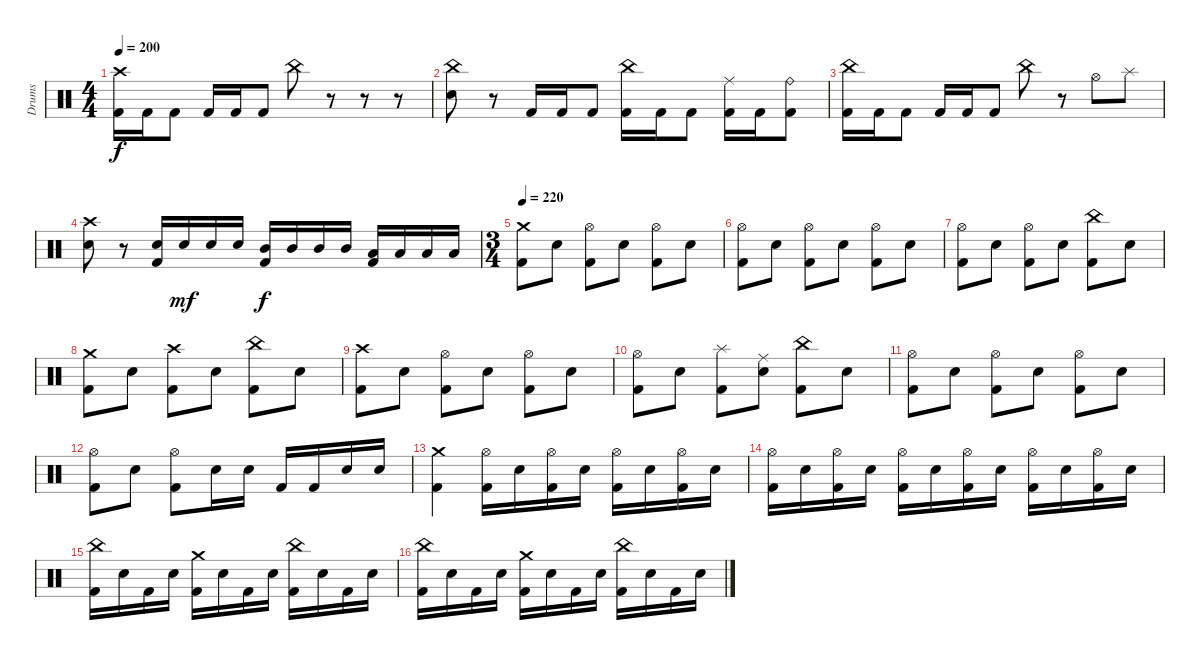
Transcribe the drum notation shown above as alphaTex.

\track ("Drums" "Drums") {instrument percussion}
\staff
\articulation defaults
\ts (4 4)
\tempo 200
\clef neutral
\ks c
("Crash high (hit)" "Kick (hit) 2").16{dy f} "Kick (hit) 2".16 "Kick (hit) 2".8 "Kick (hit) 2".16 "Kick (hit) 2".16 "Kick (hit) 2".8 "China (hit)".8 r.8 r.8 r.8 |
("China (hit)" "Electric Snare (hit)").8 r.8 "Kick (hit) 2".16 "Kick (hit) 2".16 "Kick (hit) 2".8 ("China (hit)" "Kick (hit) 2").16 "Kick (hit) 2".16 "Kick (hit) 2".8 ("Ride (middle)" "Kick (hit) 2").16 "Kick (hit) 2".16 ("Ride (bell)" "Kick (hit) 2").8 |
("China (hit)" "Kick (hit) 2").16 "Kick (hit) 2".16 "Kick (hit) 2".8 "Kick (hit) 2".16 "Kick (hit) 2".16 "Kick (hit) 2".8 "China (hit)".8 r.8 "Hi-Hat (open)".8 "Splash (hit)".8 |
("Crash high (hit)" "Electric Snare (hit)").8 r.8 ("Electric Snare (hit)" "Kick (hit) 2").16 "Electric Snare (hit)".16{dy mf} "Electric Snare (hit)".16 "Electric Snare (hit)".16 ("Mid Tom (hit)" "Kick (hit) 2").16{dy f} "Mid Tom (hit)".16 "Mid Tom (hit)".16 "Mid Tom (hit)".16 ("Low Tom (hit)" "Kick (hit) 2").16 "Low Tom (hit)".16 "Low Tom (hit)".16 "Low Tom (hit)".16 |
\ts (3 4)
\tempo 220
("Crash medium (hit)" "Kick (hit) 2").8 "Electric Snare (hit)".8 ("Hi-Hat (open)" "Kick (hit) 2").8 "Electric Snare (hit)".8 ("Hi-Hat (open)" "Kick (hit) 2").8 "Electric Snare (hit)".8 |
("Hi-Hat (open)" "Kick (hit) 2").8 "Electric Snare (hit)".8 ("Hi-Hat (open)" "Kick (hit) 2").8 "Electric Snare (hit)".8 ("Hi-Hat (open)" "Kick (hit) 2").8 "Electric Snare (hit)".8 |
("Hi-Hat (open)" "Kick (hit) 2").8 "Electric Snare (hit)".8 ("Hi-Hat (open)" "Kick (hit) 2").8 "Electric Snare (hit)".8 ("China (hit)" "Kick (hit) 2").8 "Electric Snare (hit)".8 |
("Crash medium (hit)" "Kick (hit) 2").8 "Electric Snare (hit)".8 ("Crash high (hit)" "Kick (hit) 2").8 "Electric Snare (hit)".8 ("China (hit)" "Kick (hit) 2").8 "Electric Snare (hit)".8 |
("Crash high (hit)" "Kick (hit) 2").8 "Electric Snare (hit)".8 ("Hi-Hat (open)" "Kick (hit) 2").8 "Electric Snare (hit)".8 ("Hi-Hat (open)" "Kick (hit) 2").8 "Electric Snare (hit)".8 |
("Hi-Hat (open)" "Kick (hit) 2").8 "Electric Snare (hit)".8 ("Splash (hit)" "Kick (hit) 2").8 ("Ride (middle)" "Electric Snare (hit)").8 ("China (hit)" "Kick (hit) 2").8 "Electric Snare (hit)".8 |
("Hi-Hat (open)" "Kick (hit) 2").8 "Electric Snare (hit)".8 ("Hi-Hat (open)" "Kick (hit) 2").8 "Electric Snare (hit)".8 ("Hi-Hat (open)" "Kick (hit) 2").8 "Electric Snare (hit)".8 |
("Hi-Hat (open)" "Kick (hit) 2").8 "Electric Snare (hit)".8 ("Hi-Hat (open)" "Kick (hit) 2").8 "Electric Snare (hit)".16 "Electric Snare (hit)".16 "Kick (hit) 2".16 "Kick (hit) 2".16 "Electric Snare (hit)".16 "Electric Snare (hit)".16 |
("Crash medium (hit)" "Kick (hit) 2").4 ("Hi-Hat (open)" "Kick (hit) 2").16 "Electric Snare (hit)".16 ("Hi-Hat (open)" "Kick (hit) 2").16 "Electric Snare (hit)".16 ("Hi-Hat (open)" "Kick (hit) 2").16 "Electric Snare (hit)".16 ("Hi-Hat (open)" "Kick (hit) 2").16 "Electric Snare (hit)".16 |
("Hi-Hat (open)" "Kick (hit) 2").16 "Electric Snare (hit)".16 ("Hi-Hat (open)" "Kick (hit) 2").16 "Electric Snare (hit)".16 ("Hi-Hat (open)" "Kick (hit) 2").16 "Electric Snare (hit)".16 ("Hi-Hat (open)" "Kick (hit) 2").16 "Electric Snare (hit)".16 ("Hi-Hat (open)" "Kick (hit) 2").16 "Electric Snare (hit)".16 ("Hi-Hat (open)" "Kick (hit) 2").16 "Electric Snare (hit)".16 |
("China (hit)" "Kick (hit) 2").16 "Electric Snare (hit)".16 "Kick (hit) 2".16 "Electric Snare (hit)".16 ("Crash medium (hit)" "Kick (hit) 2").16 "Electric Snare (hit)".16 "Kick (hit) 2".16 "Electric Snare (hit)".16 ("China (hit)" "Kick (hit) 2").16 "Electric Snare (hit)".16 "Kick (hit) 2".16 "Electric Snare (hit)".16 |
("China (hit)" "Kick (hit) 2").16 "Electric Snare (hit)".16 "Kick (hit) 2".16 "Electric Snare (hit)".16 ("Crash medium (hit)" "Kick (hit) 2").16 "Electric Snare (hit)".16 "Kick (hit) 2".16 "Electric Snare (hit)".16 ("China (hit)" "Kick (hit) 2").16 "Electric Snare (hit)".16 "Kick (hit) 2".16 "Electric Snare (hit)".16
